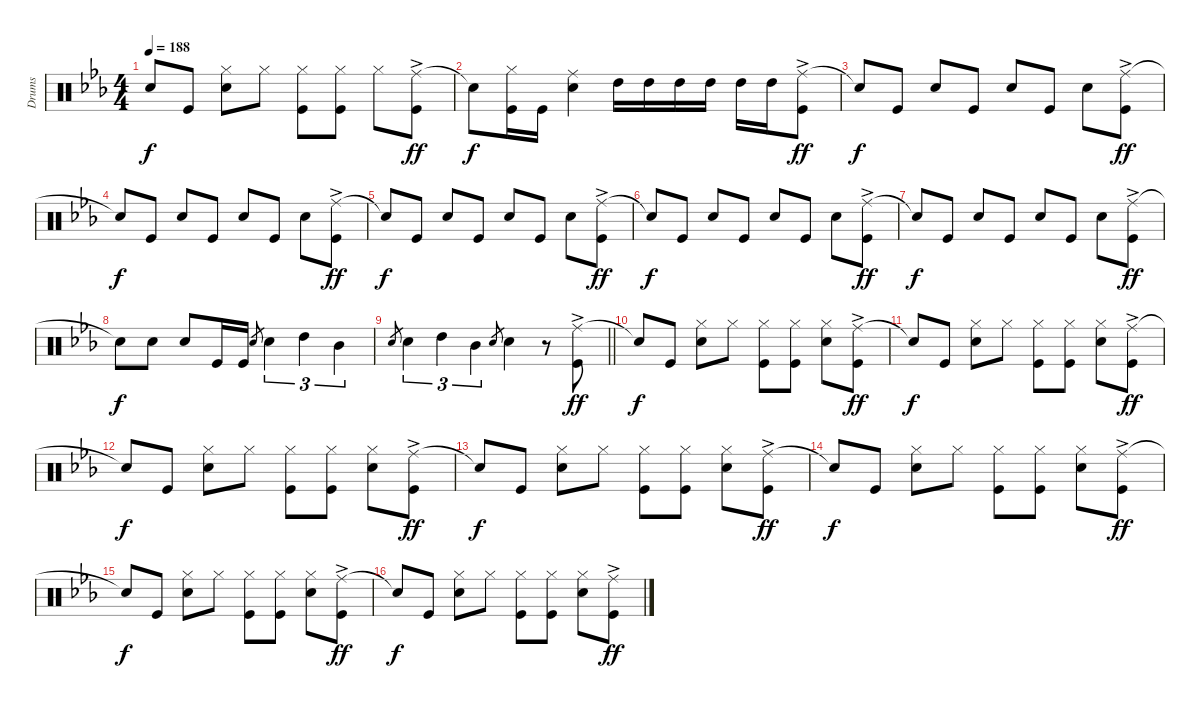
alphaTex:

\track ("Drums" "Drums") {instrument percussion}
\staff {score}
\articulation defaults
\ts (4 4)
\tempo 188
\clef neutral
\ks eb "Snare (hit)"{t}.8{dy f} "Kick (hit)".8
("Hi-Hat (closed)" "Snare (hit) 2").8 "Hi-Hat (closed)".8 ("Hi-Hat (closed)" "Kick (hit)").8 ("Hi-Hat (closed)" "Kick (hit)").8 "Hi-Hat (closed)".8 ("Ride (middle)"{ac} "Kick (hit)").8{dy ff} |
"Snare (hit)"{t}.8{dy f} ("Hi-Hat (closed)" "Kick (hit)").16 "Kick (hit)".16 ("Ride (middle)" "Snare (hit) 2").4 "High Tom (hit)".16 "High Tom (hit)".16 "High Tom (hit)".16 "High Tom (hit)".16 "High Tom (hit)".16 "High Tom (hit)".16 ("Ride (middle)"{ac} "Kick (hit)").8{dy ff} |
"Snare (hit)"{t}.8{dy f} "Kick (hit)".8 "Snare (hit) 2".8 "Kick (hit)".8 "Snare (hit) 2".8 "Kick (hit)".8 "Snare (hit) 2".8 ("Ride (middle)"{ac} "Kick (hit)").8{dy ff} |
"Snare (hit)"{t}.8{dy f} "Kick (hit)".8 "Snare (hit) 2".8 "Kick (hit)".8 "Snare (hit) 2".8 "Kick (hit)".8 "Snare (hit) 2".8 ("Ride (middle)"{ac} "Kick (hit)").8{dy ff} |
"Snare (hit)"{t}.8{dy f} "Kick (hit)".8 "Snare (hit) 2".8 "Kick (hit)".8 "Snare (hit) 2".8 "Kick (hit)".8 "Snare (hit) 2".8 ("Ride (middle)"{ac} "Kick (hit)").8{dy ff} |
"Snare (hit)"{t}.8{dy f} "Kick (hit)".8 "Snare (hit) 2".8 "Kick (hit)".8 "Snare (hit) 2".8 "Kick (hit)".8 "Snare (hit) 2".8 ("Ride (middle)"{ac} "Kick (hit)").8{dy ff} |
"Snare (hit)"{t}.8{dy f} "Kick (hit)".8 "Snare (hit) 2".8 "Kick (hit)".8 "Snare (hit) 2".8 "Kick (hit)".8 "Snare (hit) 2".8 ("Ride (middle)"{ac} "Kick (hit)").8{dy ff} |
"Snare (hit)"{t}.8{dy f} "Snare (hit) 2".8 "Snare (hit) 2".8 "Kick (hit)".16 "Kick (hit)".16 "Snare (hit) 2".8{gr} "Snare (hit) 2".4{tu (3 2)} "High Tom (hit)".4{tu (3 2)} "Mid Tom (hit)".4{tu (3 2)} |
\barLineRight lightlight "Snare (hit) 2".8{gr} "Snare (hit) 2".4{tu (3 2)} "High Tom (hit)".4{tu (3 2)} "Mid Tom (hit)".4{tu (3 2)} "Snare (hit) 2".8{gr} "Snare (hit) 2".4
r.8 ("Ride (middle)"{ac} "Kick (hit)").8{dy ff} |
"Snare (hit)"{t}.8{dy f} "Kick (hit)".8 ("Hi-Hat (closed)" "Snare (hit) 2").8 "Hi-Hat (closed)".8 ("Hi-Hat (closed)" "Kick (hit)").8 ("Hi-Hat (closed)" "Kick (hit)").8 ("Hi-Hat (closed)" "Snare (hit) 2").8 ("Ride (middle)"{ac} "Kick (hit)").8{dy ff} |
"Snare (hit)"{t}.8{dy f} "Kick (hit)".8 ("Hi-Hat (closed)" "Snare (hit) 2").8 "Hi-Hat (closed)".8 ("Hi-Hat (closed)" "Kick (hit)").8 ("Hi-Hat (closed)" "Kick (hit)").8 ("Hi-Hat (closed)" "Snare (hit) 2").8 ("Ride (middle)"{ac} "Kick (hit)").8{dy ff} |
"Snare (hit)"{t}.8{dy f} "Kick (hit)".8 ("Hi-Hat (closed)" "Snare (hit) 2").8 "Hi-Hat (closed)".8 ("Hi-Hat (closed)" "Kick (hit)").8 ("Hi-Hat (closed)" "Kick (hit)").8 ("Hi-Hat (closed)" "Snare (hit) 2").8 ("Ride (middle)"{ac} "Kick (hit)").8{dy ff} |
"Snare (hit)"{t}.8{dy f} "Kick (hit)".8 ("Hi-Hat (closed)" "Snare (hit) 2").8 "Hi-Hat (closed)".8 ("Hi-Hat (closed)" "Kick (hit)").8 ("Hi-Hat (closed)" "Kick (hit)").8 ("Hi-Hat (closed)" "Snare (hit) 2").8 ("Ride (middle)"{ac} "Kick (hit)").8{dy ff} |
"Snare (hit)"{t}.8{dy f} "Kick (hit)".8 ("Hi-Hat (closed)" "Snare (hit) 2").8 "Hi-Hat (closed)".8 ("Hi-Hat (closed)" "Kick (hit)").8 ("Hi-Hat (closed)" "Kick (hit)").8 ("Hi-Hat (closed)" "Snare (hit) 2").8 ("Ride (middle)"{ac} "Kick (hit)").8{dy ff} |
"Snare (hit)"{t}.8{dy f} "Kick (hit)".8 ("Hi-Hat (closed)" "Snare (hit) 2").8 "Hi-Hat (closed)".8 ("Hi-Hat (closed)" "Kick (hit)").8 ("Hi-Hat (closed)" "Kick (hit)").8 ("Hi-Hat (closed)" "Snare (hit) 2").8 ("Ride (middle)"{ac} "Kick (hit)").8{dy ff} |
"Snare (hit)"{t}.8{dy f} "Kick (hit)".8 ("Hi-Hat (closed)" "Snare (hit) 2").8 "Hi-Hat (closed)".8 ("Hi-Hat (closed)" "Kick (hit)").8 ("Hi-Hat (closed)" "Kick (hit)").8 ("Hi-Hat (closed)" "Snare (hit) 2").8 ("Ride (middle)"{ac} "Kick (hit)").8{dy ff}
